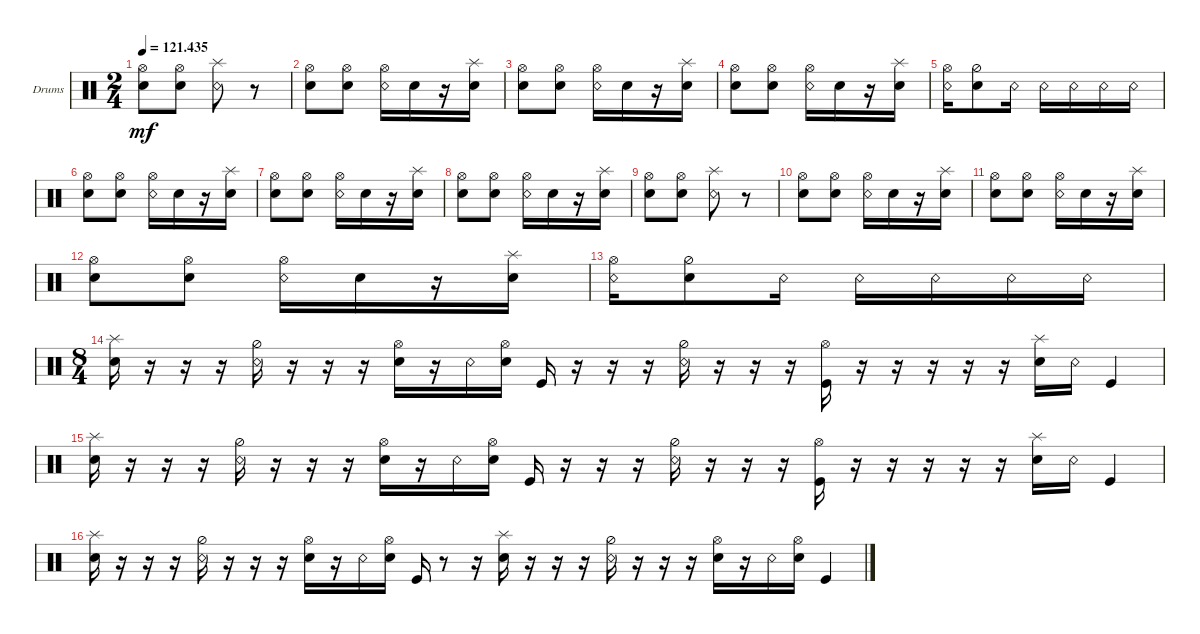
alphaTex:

\bracketExtendMode groupsimilarinstruments
\firstSystemTrackNameOrientation horizontal
\otherSystemsTrackNameOrientation horizontal
\track ("Drumkit" "Drums") {instrument percussion}
\staff {score}
\articulation defaults
\ts (2 4)
\tempo
121.435
\accidentals auto
\clef neutral
\ottava regular
\simile none
\ks c
("Snare (hit) 2" "Hi-Hat (open)").8{dy mf} ("Snare (hit) 2" "Hi-Hat (open)").8 ("Snare (rim shot)" "Splash (hit)").8 r.8 |
("Snare (hit) 2" "Hi-Hat (open)").8 ("Snare (hit) 2" "Hi-Hat (open)").8 ("Snare (rim shot)" "Hi-Hat (open)").16 "Snare (hit) 2".16 r.16 ("Snare (hit) 2" "Splash (hit)").16 |
("Snare (hit) 2" "Hi-Hat (open)").8 ("Snare (hit) 2" "Hi-Hat (open)").8 ("Snare (rim shot)" "Hi-Hat (open)").16 "Snare (hit) 2".16 r.16 ("Snare (hit) 2" "Splash (hit)").16 |
("Snare (hit) 2" "Hi-Hat (open)").8 ("Snare (hit) 2" "Hi-Hat (open)").8 ("Snare (rim shot)" "Hi-Hat (open)").16 "Snare (hit) 2".16 r.16 ("Snare (hit) 2" "Splash (hit)").16 |
("Snare (rim shot)" "Hi-Hat (open)").16 ("Snare (hit) 2" "Hi-Hat (half)").8 "Snare (rim shot)".16 "Snare (rim shot)".16 "Snare (rim shot)".16 "Snare (rim shot)".16 "Snare (rim shot)".16 |
("Snare (hit) 2" "Hi-Hat (open)").8 ("Snare (hit) 2" "Hi-Hat (open)").8 ("Snare (rim shot)" "Hi-Hat (open)").16 "Snare (hit) 2".16 r.16 ("Snare (hit) 2" "Splash (hit)").16 |
("Snare (hit) 2" "Hi-Hat (open)").8 ("Snare (hit) 2" "Hi-Hat (open)").8 ("Snare (rim shot)" "Hi-Hat (open)").16 "Snare (hit) 2".16 r.16 ("Snare (hit) 2" "Splash (hit)").16 |
("Snare (hit) 2" "Hi-Hat (open)").8 ("Snare (hit) 2" "Hi-Hat (open)").8 ("Snare (rim shot)" "Hi-Hat (open)").16 "Snare (hit) 2".16 r.16 ("Snare (hit) 2" "Splash (hit)").16 |
("Snare (hit) 2" "Hi-Hat (open)").8 ("Snare (hit) 2" "Hi-Hat (open)").8 ("Snare (rim shot)" "Splash (hit)").8 r.8 |
("Snare (hit) 2" "Hi-Hat (open)").8 ("Snare (hit) 2" "Hi-Hat (open)").8 ("Snare (rim shot)" "Hi-Hat (open)").16 "Snare (hit) 2".16 r.16 ("Snare (hit) 2" "Splash (hit)").16 |
("Snare (hit) 2" "Hi-Hat (open)").8 ("Snare (hit) 2" "Hi-Hat (open)").8 ("Snare (rim shot)" "Hi-Hat (open)").16 "Snare (hit) 2".16 r.16 ("Snare (hit) 2" "Splash (hit)").16 |
("Snare (hit) 2" "Hi-Hat (open)").8 ("Snare (hit) 2" "Hi-Hat (open)").8 ("Snare (rim shot)" "Hi-Hat (open)").16 "Snare (hit) 2".16 r.16 ("Snare (hit) 2" "Splash (hit)").16 |
("Snare (rim shot)" "Hi-Hat (open)").16 ("Snare (hit) 2" "Hi-Hat (half)").8 "Snare (rim shot)".16 "Snare (rim shot)".16 "Snare (rim shot)".16 "Snare (rim shot)".16 "Snare (rim shot)".16 |
\ts (8 4)
("Snare (hit) 2" "Splash (hit)").16 r.16 r.16 r.16 ("Snare (rim shot)" "Hi-Hat (half)").16 r.16 r.16 r.16 ("Hi-Hat (open)" "Snare (hit) 2").16 r.16 "Snare (rim shot)".16 ("Snare (hit) 2" "Hi-Hat (open)").16 "Kick (hit)".16 r.16 r.16 r.16 ("Snare (rim shot)" "Hi-Hat (half)").16 r.16 r.16 r.16 ("Kick (hit)" "Hi-Hat (open)").16 r.16 r.16 r.16 r.16 r.16 ("Snare (hit) 2" "Splash (hit)").16 "Snare (rim shot)".16 "Kick (hit)".4 |
("Snare (hit) 2" "Splash (hit)").16 r.16 r.16 r.16 ("Snare (rim shot)" "Hi-Hat (half)").16 r.16 r.16 r.16 ("Hi-Hat (open)" "Snare (hit) 2").16 r.16 "Snare (rim shot)".16 ("Snare (hit) 2" "Hi-Hat (open)").16 "Kick (hit)".16 r.16 r.16 r.16 ("Snare (rim shot)" "Hi-Hat (half)").16 r.16 r.16 r.16 ("Kick (hit)" "Hi-Hat (open)").16 r.16 r.16 r.16 r.16 r.16 ("Snare (hit) 2" "Splash (hit)").16 "Snare (rim shot)".16 "Kick (hit)".4 |
("Snare (hit) 2" "Splash (hit)").16 r.16 r.16 r.16 ("Snare (rim shot)" "Hi-Hat (half)").16 r.16 r.16 r.16 ("Hi-Hat (open)" "Snare (hit) 2").16 r.16 "Snare (rim shot)".16 ("Snare (hit) 2" "Hi-Hat (open)").16 "Kick (hit)".16 r.8 r.16 ("Snare (hit) 2" "Splash (hit)").16 r.16 r.16 r.16 ("Snare (rim shot)" "Hi-Hat (half)").16 r.16 r.16 r.16 ("Hi-Hat (open)" "Snare (hit) 2").16 r.16 "Snare (rim shot)".16 ("Snare (hit) 2" "Hi-Hat (open)").16 "Kick (hit)".4
